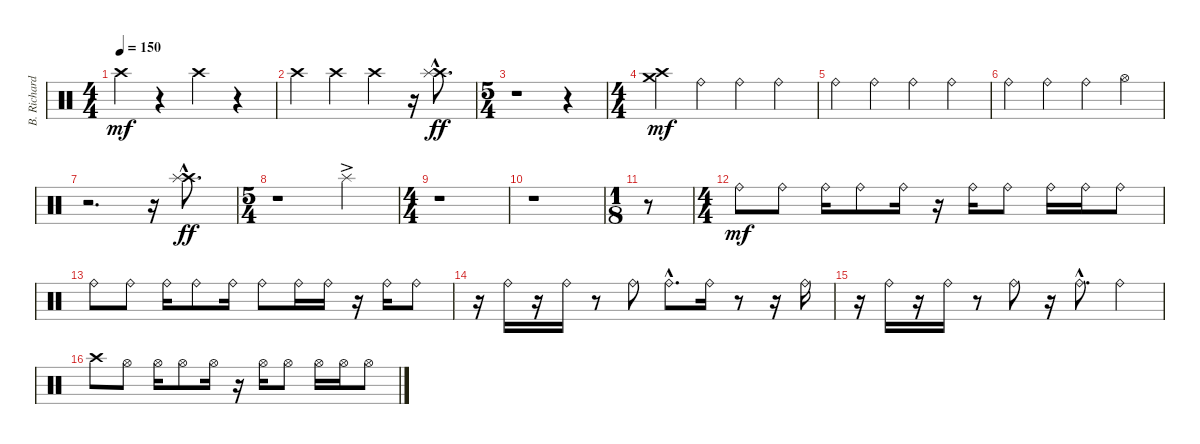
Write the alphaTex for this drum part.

\track ("B. Richardson Drums" "B. Richard") {instrument percussion}
\staff {score}
\articulation defaults
\ts (4 4)
\tempo 150
\clef neutral
\ks c "Crash high (hit)".4{dy mf}
r.4 "Crash high (hit)".4 r.4 |
"Crash high (hit)".4 "Crash high (hit)".4 "Crash high (hit)".4 r.16 ("Crash high (hit)"{hac} "Splash (hit)"{hac}).8{d dy ff} |
\ts (5 4)
r.1 r.4 |
\ts (4 4)
("Crash high (hit)" "Crash medium (hit)").4{dy mf} "Ride (bell)".4 "Ride (bell)".4 "Ride (bell)".4 |
"Ride (bell)".4 "Ride (bell)".4 "Ride (bell)".4 "Ride (bell)".4 |
"Ride (bell)".4 "Ride (bell)".4 "Ride (bell)".4 "Hi-Hat (open)".4 |
r.2{d} r.16 ("Crash high (hit)"{hac} "Splash (hit)"{hac}).8{d dy ff} |
\ts (5 4)
r.1 "Splash (hit)"{ac}.4 |
\ts (4 4)
r.1 |
r.1 |
\ts (1 8)
r.8 |
\ts (4 4)
"Ride (bell)".8{dy mf} "Ride (bell)".8 "Ride (bell)".16 "Ride (bell)".8 "Ride (bell)".16 r.16 "Ride (bell)".16 "Ride (bell)".8 "Ride (bell)".16 "Ride (bell)".16 "Ride (bell)".8 |
"Ride (bell)".8 "Ride (bell)".8 "Ride (bell)".16 "Ride (bell)".8 "Ride (bell)".16 "Ride (bell)".8 "Ride (bell)".16 "Ride (bell)".16 r.16 "Ride (bell)".16 "Ride (bell)".8 |
r.16 "Ride (bell)".16 r.16 "Ride (bell)".16 r.8 "Ride (bell)".8 "Ride (bell)"{hac}.8{d} "Ride (bell)".16 r.8 r.16 "Ride (bell)".16 |
r.16 "Ride (bell)".16 r.16 "Ride (bell)".16 r.8 "Ride (bell)".8 r.16 "Ride (bell)"{hac}.8{d} "Ride (bell)".4 |
"Crash high (hit)".8 "Hi-Hat (open)".8 "Hi-Hat (open)".16 "Hi-Hat (open)".8 "Hi-Hat (open)".16 r.16 "Hi-Hat (open)".16 "Hi-Hat (open)".8 "Hi-Hat (open)".16 "Hi-Hat (open)".16 "Hi-Hat (open)".8
